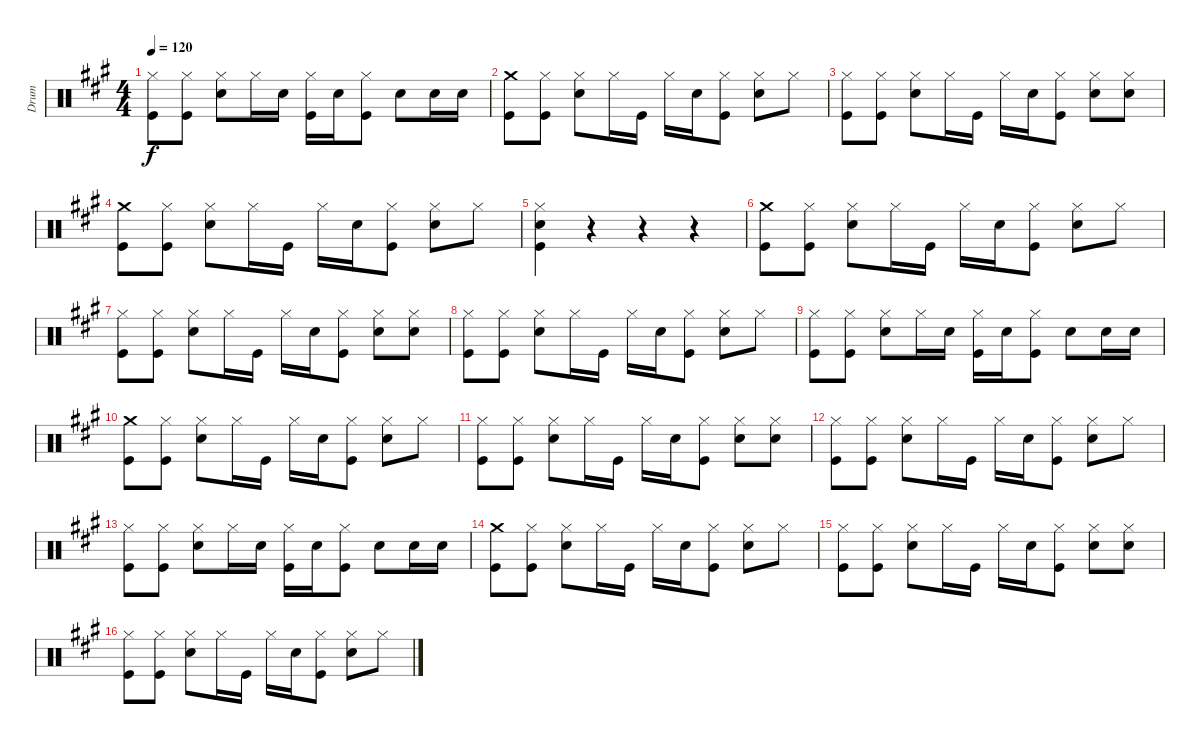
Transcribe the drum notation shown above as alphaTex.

\track ("Drum" "Drum") {instrument percussion}
\staff {score}
\articulation defaults
\ts (4 4)
\tempo 120
\clef neutral
\ks a
("Hi-Hat (closed)" "Kick (hit)").8{dy f} ("Hi-Hat (closed)" "Kick (hit)").8 ("Hi-Hat (closed)" "Snare (hit) 2").8 "Hi-Hat (closed)".16 "Snare (hit) 2".16 ("Hi-Hat (closed)" "Kick (hit)").16 "Snare (hit) 2".16 ("Hi-Hat (closed)" "Kick (hit)").8 "Snare (hit) 2".8 "Snare (hit) 2".16 "Snare (hit) 2".16 |
("Crash medium (hit)" "Kick (hit)").8 ("Hi-Hat (closed)" "Kick (hit)").8 ("Hi-Hat (closed)" "Snare (hit) 2").8 "Hi-Hat (closed)".16 "Kick (hit)".16 "Hi-Hat (closed)".16 "Snare (hit) 2".16 ("Hi-Hat (closed)" "Kick (hit)").8 ("Hi-Hat (closed)" "Snare (hit) 2").8 "Hi-Hat (closed)".8 |
("Hi-Hat (closed)" "Kick (hit)").8 ("Hi-Hat (closed)" "Kick (hit)").8 ("Hi-Hat (closed)" "Snare (hit) 2").8 "Hi-Hat (closed)".16 "Kick (hit)".16 "Hi-Hat (closed)".16 "Snare (hit) 2".16 ("Hi-Hat (closed)" "Kick (hit)").8 ("Hi-Hat (closed)" "Snare (hit) 2").8 ("Hi-Hat (closed)" "Snare (hit) 2").8 |
("Crash medium (hit)" "Kick (hit)").8 ("Hi-Hat (closed)" "Kick (hit)").8 ("Hi-Hat (closed)" "Snare (hit) 2").8 "Hi-Hat (closed)".16 "Kick (hit)".16 "Hi-Hat (closed)".16 "Snare (hit) 2".16 ("Hi-Hat (closed)" "Kick (hit)").8 ("Hi-Hat (closed)" "Snare (hit) 2").8 "Hi-Hat (closed)".8 |
("Hi-Hat (closed)" "Snare (hit) 2" "Kick (hit)").4 r.4 r.4 r.4 |
("Crash medium (hit)" "Kick (hit)").8 ("Hi-Hat (closed)" "Kick (hit)").8 ("Hi-Hat (closed)" "Snare (hit) 2").8 "Hi-Hat (closed)".16 "Kick (hit)".16 "Hi-Hat (closed)".16 "Snare (hit) 2".16 ("Hi-Hat (closed)" "Kick (hit)").8 ("Hi-Hat (closed)" "Snare (hit) 2").8 "Hi-Hat (closed)".8 |
("Hi-Hat (closed)" "Kick (hit)").8 ("Hi-Hat (closed)" "Kick (hit)").8 ("Hi-Hat (closed)" "Snare (hit) 2").8 "Hi-Hat (closed)".16 "Kick (hit)".16 "Hi-Hat (closed)".16 "Snare (hit) 2".16 ("Hi-Hat (closed)" "Kick (hit)").8 ("Hi-Hat (closed)" "Snare (hit) 2").8 ("Hi-Hat (closed)" "Snare (hit) 2").8 |
("Hi-Hat (closed)" "Kick (hit)").8 ("Hi-Hat (closed)" "Kick (hit)").8 ("Hi-Hat (closed)" "Snare (hit) 2").8 "Hi-Hat (closed)".16 "Kick (hit)".16 "Hi-Hat (closed)".16 "Snare (hit) 2".16 ("Hi-Hat (closed)" "Kick (hit)").8 ("Hi-Hat (closed)" "Snare (hit) 2").8 "Hi-Hat (closed)".8 |
("Hi-Hat (closed)" "Kick (hit)").8 ("Hi-Hat (closed)" "Kick (hit)").8 ("Hi-Hat (closed)" "Snare (hit) 2").8 "Hi-Hat (closed)".16 "Snare (hit) 2".16 ("Hi-Hat (closed)" "Kick (hit)").16 "Snare (hit) 2".16 ("Hi-Hat (closed)" "Kick (hit)").8 "Snare (hit) 2".8 "Snare (hit) 2".16 "Snare (hit) 2".16 |
("Crash medium (hit)" "Kick (hit)").8 ("Hi-Hat (closed)" "Kick (hit)").8 ("Hi-Hat (closed)" "Snare (hit) 2").8 "Hi-Hat (closed)".16 "Kick (hit)".16 "Hi-Hat (closed)".16 "Snare (hit) 2".16 ("Hi-Hat (closed)" "Kick (hit)").8 ("Hi-Hat (closed)" "Snare (hit) 2").8 "Hi-Hat (closed)".8 |
("Hi-Hat (closed)" "Kick (hit)").8 ("Hi-Hat (closed)" "Kick (hit)").8 ("Hi-Hat (closed)" "Snare (hit) 2").8 "Hi-Hat (closed)".16 "Kick (hit)".16 "Hi-Hat (closed)".16 "Snare (hit) 2".16 ("Hi-Hat (closed)" "Kick (hit)").8 ("Hi-Hat (closed)" "Snare (hit) 2").8 ("Hi-Hat (closed)" "Snare (hit) 2").8 |
("Hi-Hat (closed)" "Kick (hit)").8 ("Hi-Hat (closed)" "Kick (hit)").8 ("Hi-Hat (closed)" "Snare (hit) 2").8 "Hi-Hat (closed)".16 "Kick (hit)".16 "Hi-Hat (closed)".16 "Snare (hit) 2".16 ("Hi-Hat (closed)" "Kick (hit)").8 ("Hi-Hat (closed)" "Snare (hit) 2").8 "Hi-Hat (closed)".8 |
("Hi-Hat (closed)" "Kick (hit)").8 ("Hi-Hat (closed)" "Kick (hit)").8 ("Hi-Hat (closed)" "Snare (hit) 2").8 "Hi-Hat (closed)".16 "Snare (hit) 2".16 ("Hi-Hat (closed)" "Kick (hit)").16 "Snare (hit) 2".16 ("Hi-Hat (closed)" "Kick (hit)").8 "Snare (hit) 2".8 "Snare (hit) 2".16 "Snare (hit) 2".16 |
("Crash medium (hit)" "Kick (hit)").8 ("Hi-Hat (closed)" "Kick (hit)").8 ("Hi-Hat (closed)" "Snare (hit) 2").8 "Hi-Hat (closed)".16 "Kick (hit)".16 "Hi-Hat (closed)".16 "Snare (hit) 2".16 ("Hi-Hat (closed)" "Kick (hit)").8 ("Hi-Hat (closed)" "Snare (hit) 2").8 "Hi-Hat (closed)".8 |
("Hi-Hat (closed)" "Kick (hit)").8 ("Hi-Hat (closed)" "Kick (hit)").8 ("Hi-Hat (closed)" "Snare (hit) 2").8 "Hi-Hat (closed)".16 "Kick (hit)".16 "Hi-Hat (closed)".16 "Snare (hit) 2".16 ("Hi-Hat (closed)" "Kick (hit)").8 ("Hi-Hat (closed)" "Snare (hit) 2").8 ("Hi-Hat (closed)" "Snare (hit) 2").8 |
("Hi-Hat (closed)" "Kick (hit)").8 ("Hi-Hat (closed)" "Kick (hit)").8 ("Hi-Hat (closed)" "Snare (hit) 2").8 "Hi-Hat (closed)".16 "Kick (hit)".16 "Hi-Hat (closed)".16 "Snare (hit) 2".16 ("Hi-Hat (closed)" "Kick (hit)").8 ("Hi-Hat (closed)" "Snare (hit) 2").8 "Hi-Hat (closed)".8
